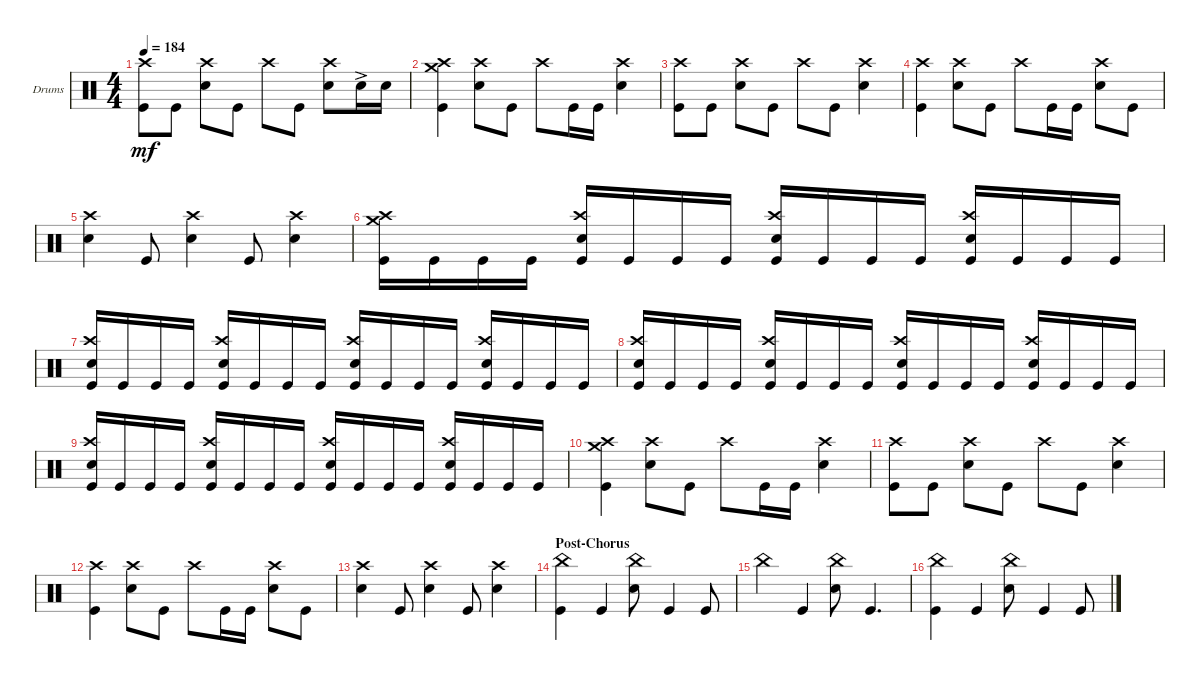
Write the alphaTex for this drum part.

\defaultSystemsLayout 4
\bracketExtendMode groupsimilarinstruments
\firstSystemTrackNameOrientation horizontal
\otherSystemsTrackNameOrientation horizontal
\track ("Drums (Phoenix)" "Drums") {instrument percussion}
\staff {score}
\articulation defaults
\ts (4 4)
\tempo 184
\clef neutral
\ks c
("Kick (hit)" "Crash high (hit)").8{dy mf} "Kick (hit)".8 ("Snare (hit) 2" "Crash high (hit)").8 "Kick (hit)".8 "Crash high (hit)".8 "Kick (hit)".8 ("Snare (hit) 2" "Crash high (hit)").8 "Snare (hit) 2"{ac}.16 "Snare (hit) 2".16 |
("Kick (hit)" "Crash high (hit)" "Crash medium (hit)").4 ("Snare (hit) 2" "Crash high (hit)").8 "Kick (hit)".8 "Crash high (hit)".8 "Kick (hit)".16 "Kick (hit)".16 ("Snare (hit) 2" "Crash high (hit)").4 |
("Kick (hit)" "Crash high (hit)").8 "Kick (hit)".8 ("Snare (hit) 2" "Crash high (hit)").8 "Kick (hit)".8 "Crash high (hit)".8 "Kick (hit)".8 ("Snare (hit) 2" "Crash high (hit)").4 |
("Kick (hit)" "Crash high (hit)").4 ("Snare (hit) 2" "Crash high (hit)").8 "Kick (hit)".8 "Crash high (hit)".8 "Kick (hit)".16 "Kick (hit)".16 ("Snare (hit) 2" "Crash high (hit)").8 "Kick (hit)".8 |
("Snare (hit) 2" "Crash high (hit)").4 "Kick (hit)".8 ("Snare (hit) 2" "Crash high (hit)").4 "Kick (hit)".8 ("Snare (hit) 2" "Crash high (hit)").4 |
("Kick (hit)" "Crash medium (hit)" "Crash high (hit)").16 "Kick (hit)".16 "Kick (hit)".16 "Kick (hit)".16 ("Kick (hit)" "Crash high (hit)" "Snare (hit) 2").16 "Kick (hit)".16 "Kick (hit)".16 "Kick (hit)".16 ("Kick (hit)" "Crash high (hit)" "Snare (hit) 2").16 "Kick (hit)".16 "Kick (hit)".16 "Kick (hit)".16 ("Kick (hit)" "Crash high (hit)" "Snare (hit) 2").16 "Kick (hit)".16 "Kick (hit)".16 "Kick (hit)".16 |
("Kick (hit)" "Crash high (hit)" "Snare (hit) 2").16 "Kick (hit)".16 "Kick (hit)".16 "Kick (hit)".16 ("Kick (hit)" "Crash high (hit)" "Snare (hit) 2").16 "Kick (hit)".16 "Kick (hit)".16 "Kick (hit)".16 ("Kick (hit)" "Crash high (hit)" "Snare (hit) 2").16 "Kick (hit)".16 "Kick (hit)".16 "Kick (hit)".16 ("Kick (hit)" "Crash high (hit)" "Snare (hit) 2").16 "Kick (hit)".16 "Kick (hit)".16 "Kick (hit)".16 |
("Kick (hit)" "Crash high (hit)" "Snare (hit) 2").16 "Kick (hit)".16 "Kick (hit)".16 "Kick (hit)".16 ("Kick (hit)" "Crash high (hit)" "Snare (hit) 2").16 "Kick (hit)".16 "Kick (hit)".16 "Kick (hit)".16 ("Kick (hit)" "Crash high (hit)" "Snare (hit) 2").16 "Kick (hit)".16 "Kick (hit)".16 "Kick (hit)".16 ("Kick (hit)" "Crash high (hit)" "Snare (hit) 2").16 "Kick (hit)".16 "Kick (hit)".16 "Kick (hit)".16 |
("Kick (hit)" "Crash high (hit)" "Snare (hit) 2").16 "Kick (hit)".16 "Kick (hit)".16 "Kick (hit)".16 ("Kick (hit)" "Crash high (hit)" "Snare (hit) 2").16 "Kick (hit)".16 "Kick (hit)".16 "Kick (hit)".16 ("Kick (hit)" "Crash high (hit)" "Snare (hit) 2").16 "Kick (hit)".16 "Kick (hit)".16 "Kick (hit)".16 ("Kick (hit)" "Crash high (hit)" "Snare (hit) 2").16 "Kick (hit)".16 "Kick (hit)".16 "Kick (hit)".16 |
("Kick (hit)" "Crash high (hit)" "Crash medium (hit)").4 ("Snare (hit) 2" "Crash high (hit)").8 "Kick (hit)".8 "Crash high (hit)".8 "Kick (hit)".16 "Kick (hit)".16 ("Snare (hit) 2" "Crash high (hit)").4 |
("Kick (hit)" "Crash high (hit)").8 "Kick (hit)".8 ("Snare (hit) 2" "Crash high (hit)").8 "Kick (hit)".8 "Crash high (hit)".8 "Kick (hit)".8 ("Snare (hit) 2" "Crash high (hit)").4 |
("Kick (hit)" "Crash high (hit)").4 ("Snare (hit) 2" "Crash high (hit)").8 "Kick (hit)".8 "Crash high (hit)".8 "Kick (hit)".16 "Kick (hit)".16 ("Snare (hit) 2" "Crash high (hit)").8 "Kick (hit)".8 |
("Snare (hit) 2" "Crash high (hit)").4 "Kick (hit)".8 ("Snare (hit) 2" "Crash high (hit)").4 "Kick (hit)".8 ("Snare (hit) 2" "Crash high (hit)").4 |
\section ("" "Post-Chorus")
("Kick (hit)" "China (hit)").4 "Kick (hit)".4 ("Snare (hit) 2" "China (hit)").8 "Kick (hit)".4 "Kick (hit)".8 |
"China (hit)".4 "Kick (hit)".4 ("Snare (hit) 2" "China (hit)").8 "Kick (hit)".4{d} |
("Kick (hit)" "China (hit)").4 "Kick (hit)".4 ("Snare (hit) 2" "China (hit)").8 "Kick (hit)".4 "Kick (hit)".8
